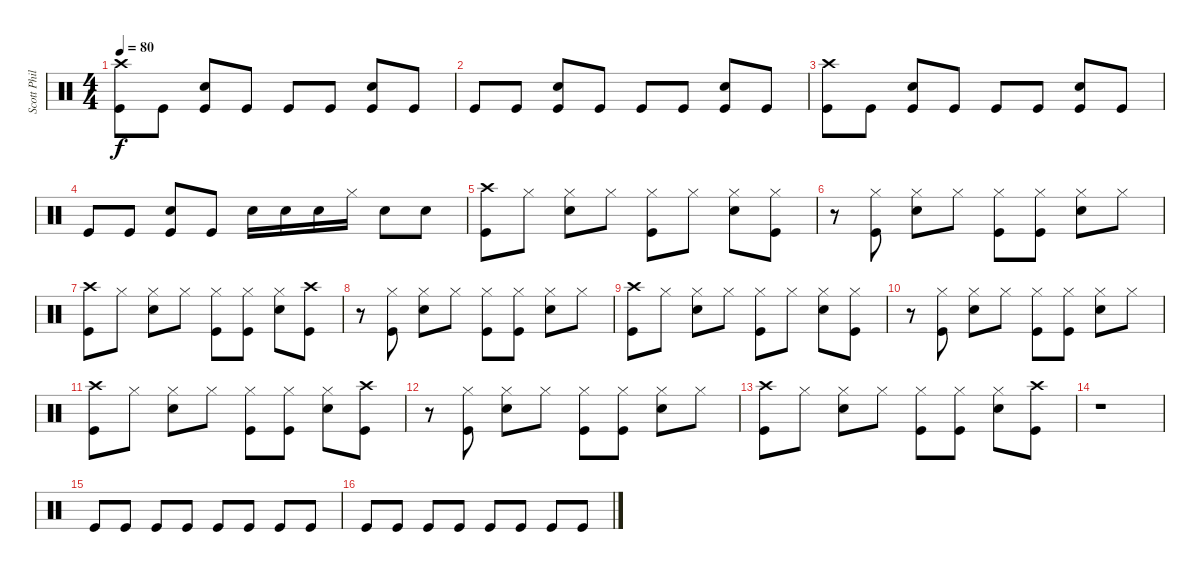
\track ("Scott Phillips" "Scott Phil") {instrument percussion}
\staff {score}
\articulation defaults
\ts (4 4)
\tempo 80
\clef neutral
\ks c
("Crash high (hit)" "Kick (hit)").8{dy f} "Kick (hit)".8 ("Snare (hit) 2" "Kick (hit)").8 "Kick (hit)".8 "Kick (hit)".8 "Kick (hit)".8 ("Snare (hit) 2" "Kick (hit)").8 "Kick (hit)".8 |
"Kick (hit)".8 "Kick (hit)".8 ("Snare (hit) 2" "Kick (hit)").8 "Kick (hit)".8 "Kick (hit)".8 "Kick (hit)".8 ("Snare (hit) 2" "Kick (hit)").8 "Kick (hit)".8 |
("Crash high (hit)" "Kick (hit)").8 "Kick (hit)".8 ("Snare (hit) 2" "Kick (hit)").8 "Kick (hit)".8 "Kick (hit)".8 "Kick (hit)".8 ("Snare (hit) 2" "Kick (hit)").8 "Kick (hit)".8 |
"Kick (hit)".8 "Kick (hit)".8 ("Snare (hit) 2" "Kick (hit)").8 "Kick (hit)".8 "Snare (hit) 2".16 "Snare (hit) 2".16 "Snare (hit) 2".16 "Hi-Hat (closed)".16 "Snare (hit) 2".8 "Snare (hit) 2".8 |
("Crash high (hit)" "Kick (hit)").8 "Hi-Hat (closed)".8 ("Hi-Hat (closed)" "Snare (hit) 2").8 "Hi-Hat (closed)".8 ("Hi-Hat (closed)" "Kick (hit)").8 "Hi-Hat (closed)".8 ("Hi-Hat (closed)" "Snare (hit) 2").8 ("Hi-Hat (closed)" "Kick (hit)").8 |
r.8 ("Hi-Hat (closed)" "Kick (hit)").8 ("Hi-Hat (closed)" "Snare (hit) 2").8 "Hi-Hat (closed)".8 ("Hi-Hat (closed)" "Kick (hit)").8 ("Hi-Hat (closed)" "Kick (hit)").8 ("Hi-Hat (closed)" "Snare (hit) 2").8 "Hi-Hat (closed)".8 |
("Crash high (hit)" "Kick (hit)").8 "Hi-Hat (closed)".8 ("Hi-Hat (closed)" "Snare (hit) 2").8 "Hi-Hat (closed)".8 ("Hi-Hat (closed)" "Kick (hit)").8 ("Hi-Hat (closed)" "Kick (hit)").8 ("Hi-Hat (closed)" "Snare (hit) 2").8 ("Crash high (hit)" "Kick (hit)").8 |
r.8 ("Hi-Hat (closed)" "Kick (hit)").8 ("Hi-Hat (closed)" "Snare (hit) 2").8 "Hi-Hat (closed)".8 ("Hi-Hat (closed)" "Kick (hit)").8 ("Hi-Hat (closed)" "Kick (hit)").8 ("Hi-Hat (closed)" "Snare (hit) 2").8 "Hi-Hat (closed)".8 |
("Crash high (hit)" "Kick (hit)").8 "Hi-Hat (closed)".8 ("Hi-Hat (closed)" "Snare (hit) 2").8 "Hi-Hat (closed)".8 ("Hi-Hat (closed)" "Kick (hit)").8 "Hi-Hat (closed)".8 ("Hi-Hat (closed)" "Snare (hit) 2").8 ("Hi-Hat (closed)" "Kick (hit)").8 |
r.8 ("Hi-Hat (closed)" "Kick (hit)").8 ("Hi-Hat (closed)" "Snare (hit) 2").8 "Hi-Hat (closed)".8 ("Hi-Hat (closed)" "Kick (hit)").8 ("Hi-Hat (closed)" "Kick (hit)").8 ("Hi-Hat (closed)" "Snare (hit) 2").8 "Hi-Hat (closed)".8 |
("Crash high (hit)" "Kick (hit)").8 "Hi-Hat (closed)".8 ("Hi-Hat (closed)" "Snare (hit) 2").8 "Hi-Hat (closed)".8 ("Hi-Hat (closed)" "Kick (hit)").8 ("Hi-Hat (closed)" "Kick (hit)").8 ("Hi-Hat (closed)" "Snare (hit) 2").8 ("Crash high (hit)" "Kick (hit)").8 |
r.8 ("Hi-Hat (closed)" "Kick (hit)").8 ("Hi-Hat (closed)" "Snare (hit) 2").8 "Hi-Hat (closed)".8 ("Hi-Hat (closed)" "Kick (hit)").8 ("Hi-Hat (closed)" "Kick (hit)").8 ("Hi-Hat (closed)" "Snare (hit) 2").8 "Hi-Hat (closed)".8 |
("Crash high (hit)" "Kick (hit)").8 "Hi-Hat (closed)".8 ("Hi-Hat (closed)" "Snare (hit) 2").8 "Hi-Hat (closed)".8 ("Hi-Hat (closed)" "Kick (hit)").8 ("Hi-Hat (closed)" "Kick (hit)").8 ("Hi-Hat (closed)" "Snare (hit) 2").8 ("Crash high (hit)" "Kick (hit)").8 |
r.1 |
"Kick (hit)".8 "Kick (hit)".8 "Kick (hit)".8 "Kick (hit)".8 "Kick (hit)".8 "Kick (hit)".8 "Kick (hit)".8 "Kick (hit)".8 |
"Kick (hit)".8 "Kick (hit)".8 "Kick (hit)".8 "Kick (hit)".8 "Kick (hit)".8 "Kick (hit)".8 "Kick (hit)".8 "Kick (hit)".8
